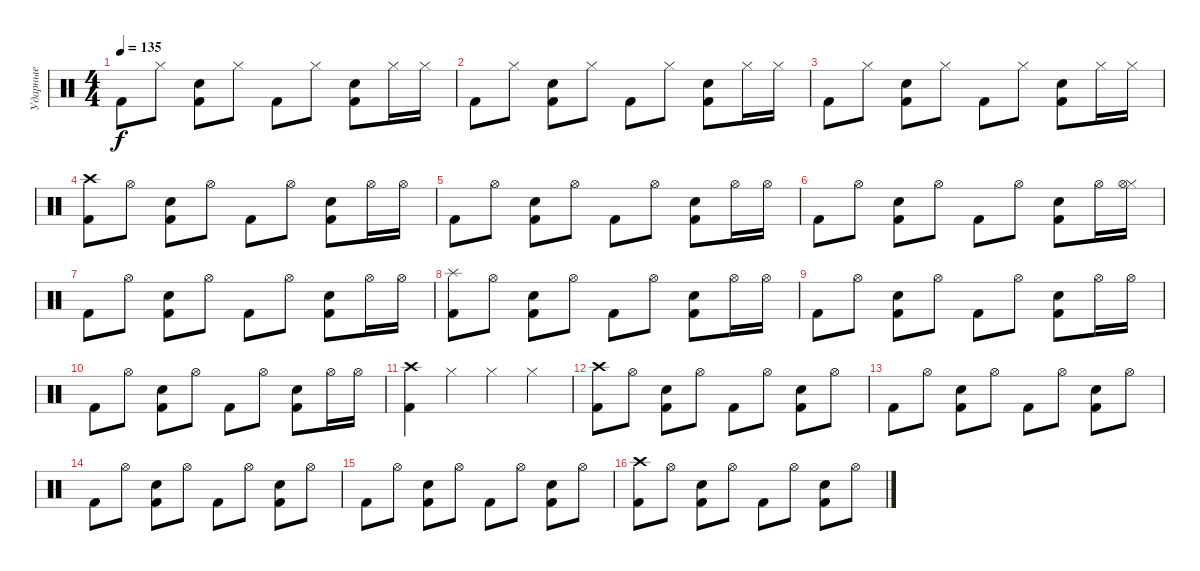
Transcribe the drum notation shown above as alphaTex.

\track ("Ударные" "Ударные") {instrument percussion}
\staff {score}
\articulation defaults
\ts (4 4)
\tempo 135
\clef neutral
\ks c "Kick (hit) 2".8{dy f} "Hi-Hat (closed)".8
("Kick (hit) 2" "Hand Clap (hit)").8 "Hi-Hat (closed)".8 "Kick (hit) 2".8 "Hi-Hat (closed)".8 ("Kick (hit) 2" "Hand Clap (hit)").8 "Hi-Hat (closed)".16 "Hi-Hat (closed)".16 |
"Kick (hit) 2".8 "Hi-Hat (closed)".8 ("Kick (hit) 2" "Hand Clap (hit)").8 "Hi-Hat (closed)".8 "Kick (hit) 2".8 "Hi-Hat (closed)".8 ("Kick (hit) 2" "Hand Clap (hit)").8 "Hi-Hat (closed)".16 "Hi-Hat (closed)".16 |
"Kick (hit) 2".8 "Hi-Hat (closed)".8 ("Kick (hit) 2" "Hand Clap (hit)").8 "Hi-Hat (closed)".8 "Kick (hit) 2".8 "Hi-Hat (closed)".8 ("Kick (hit) 2" "Hand Clap (hit)").8 "Hi-Hat (closed)".16 "Hi-Hat (closed)".16 |
("Kick (hit) 2" "Crash high (hit)").8 "Hi-Hat (open)".8 ("Kick (hit) 2" "Hand Clap (hit)").8 "Hi-Hat (open)".8 "Kick (hit) 2".8 "Hi-Hat (open)".8 ("Kick (hit) 2" "Hand Clap (hit)").8 "Hi-Hat (open)".16 "Hi-Hat (open)".16 |
"Kick (hit) 2".8 "Hi-Hat (open)".8 ("Kick (hit) 2" "Hand Clap (hit)").8 "Hi-Hat (open)".8 "Kick (hit) 2".8 "Hi-Hat (open)".8 ("Kick (hit) 2" "Hand Clap (hit)").8 "Hi-Hat (open)".16 "Hi-Hat (open)".16 |
"Kick (hit) 2".8 "Hi-Hat (open)".8 ("Kick (hit) 2" "Hand Clap (hit)").8 "Hi-Hat (open)".8 "Kick (hit) 2".8 "Hi-Hat (open)".8 ("Kick (hit) 2" "Hand Clap (hit)").8 "Hi-Hat (open)".16 ("Hi-Hat (closed)" "Hi-Hat (open)").16 |
"Kick (hit) 2".8 "Hi-Hat (open)".8 ("Kick (hit) 2" "Hand Clap (hit)").8 "Hi-Hat (open)".8 "Kick (hit) 2".8 "Hi-Hat (open)".8 ("Kick (hit) 2" "Hand Clap (hit)").8 "Hi-Hat (open)".16 "Hi-Hat (open)".16 |
("Kick (hit) 2" "Splash (hit)").8 "Hi-Hat (open)".8 ("Kick (hit) 2" "Hand Clap (hit)").8 "Hi-Hat (open)".8 "Kick (hit) 2".8 "Hi-Hat (open)".8 ("Kick (hit) 2" "Hand Clap (hit)").8 "Hi-Hat (open)".16 "Hi-Hat (open)".16 |
"Kick (hit) 2".8 "Hi-Hat (open)".8 ("Kick (hit) 2" "Hand Clap (hit)").8 "Hi-Hat (open)".8 "Kick (hit) 2".8 "Hi-Hat (open)".8 ("Kick (hit) 2" "Hand Clap (hit)").8 "Hi-Hat (open)".16 "Hi-Hat (open)".16 |
"Kick (hit) 2".8 "Hi-Hat (open)".8 ("Kick (hit) 2" "Hand Clap (hit)").8 "Hi-Hat (open)".8 "Kick (hit) 2".8 "Hi-Hat (open)".8 ("Kick (hit) 2" "Hand Clap (hit)").8 "Hi-Hat (open)".16 "Hi-Hat (open)".16 |
("Kick (hit) 2" "Crash high (hit)").4 "Hi-Hat (closed)".4 "Hi-Hat (closed)".4 "Hi-Hat (closed)".4 |
("Kick (hit) 2" "Crash high (hit)").8 "Hi-Hat (open)".8 ("Kick (hit) 2" "Snare (hit) 2").8 "Hi-Hat (open)".8 "Kick (hit) 2".8 "Hi-Hat (open)".8 ("Kick (hit) 2" "Snare (hit) 2").8 "Hi-Hat (open)".8 |
"Kick (hit) 2".8 "Hi-Hat (open)".8 ("Kick (hit) 2" "Snare (hit) 2").8 "Hi-Hat (open)".8 "Kick (hit) 2".8 "Hi-Hat (open)".8 ("Kick (hit) 2" "Snare (hit) 2").8 "Hi-Hat (open)".8 |
"Kick (hit) 2".8 "Hi-Hat (open)".8 ("Kick (hit) 2" "Snare (hit) 2").8 "Hi-Hat (open)".8 "Kick (hit) 2".8 "Hi-Hat (open)".8 ("Kick (hit) 2" "Snare (hit) 2").8 "Hi-Hat (open)".8 |
"Kick (hit) 2".8 "Hi-Hat (open)".8 ("Kick (hit) 2" "Snare (hit) 2").8 "Hi-Hat (open)".8 "Kick (hit) 2".8 "Hi-Hat (open)".8 ("Kick (hit) 2" "Snare (hit) 2").8 "Hi-Hat (open)".8 |
("Kick (hit) 2" "Crash high (hit)").8 "Hi-Hat (open)".8 ("Kick (hit) 2" "Snare (hit) 2").8 "Hi-Hat (open)".8 "Kick (hit) 2".8 "Hi-Hat (open)".8 ("Kick (hit) 2" "Snare (hit) 2").8 "Hi-Hat (open)".8
